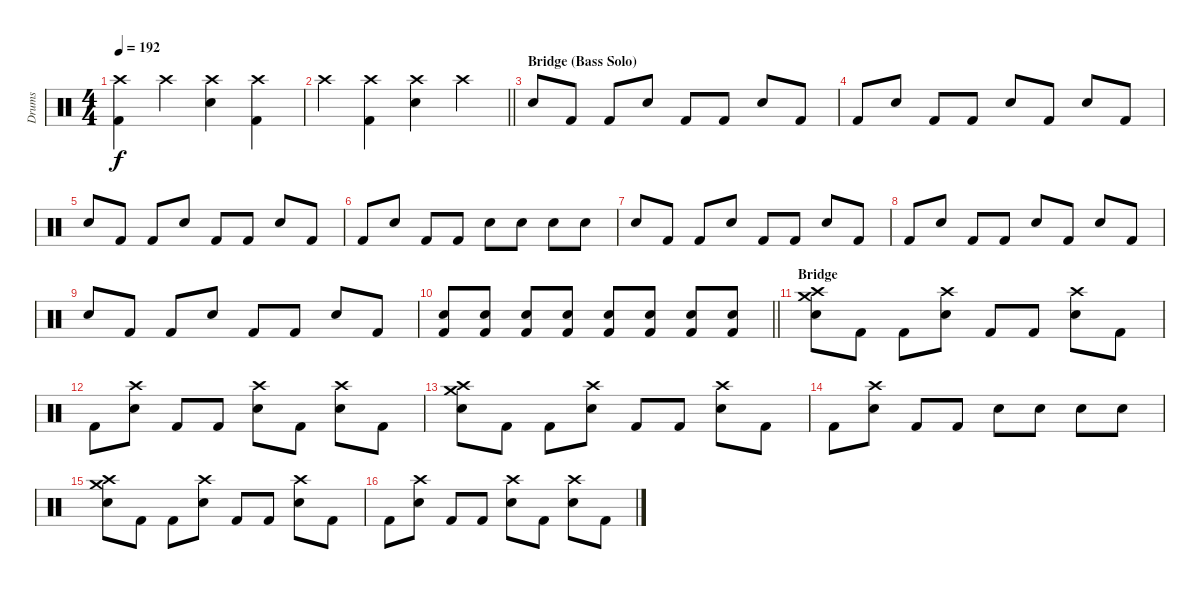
\track ("Drums" "Drums") {instrument percussion}
\staff {score}
\articulation defaults
\ts (4 4)
\tempo 192
\clef neutral
\ks c
("Crash high (hit)" "Kick (hit) 2").4{dy f} "Crash high (hit)".4 ("Crash high (hit)" "Snare (hit) 2").4 ("Crash high (hit)" "Kick (hit) 2").4 |
\barLineRight lightlight "Crash high (hit)".4
("Crash high (hit)" "Kick (hit) 2").4 ("Crash high (hit)" "Snare (hit) 2").4 "Crash high (hit)".4 |
\section ("" "Bridge (Bass Solo)")
"Snare (hit) 2".8 "Kick (hit) 2".8 "Kick (hit) 2".8 "Snare (hit) 2".8 "Kick (hit) 2".8 "Kick (hit) 2".8 "Snare (hit) 2".8 "Kick (hit) 2".8 |
"Kick (hit) 2".8 "Snare (hit) 2".8 "Kick (hit) 2".8 "Kick (hit) 2".8 "Snare (hit) 2".8 "Kick (hit) 2".8 "Snare (hit) 2".8 "Kick (hit) 2".8 |
"Snare (hit) 2".8 "Kick (hit) 2".8 "Kick (hit) 2".8 "Snare (hit) 2".8 "Kick (hit) 2".8 "Kick (hit) 2".8 "Snare (hit) 2".8 "Kick (hit) 2".8 |
"Kick (hit) 2".8 "Snare (hit) 2".8 "Kick (hit) 2".8 "Kick (hit) 2".8 "Snare (hit) 2".8 "Snare (hit) 2".8 "Snare (hit) 2".8 "Snare (hit) 2".8 |
"Snare (hit) 2".8 "Kick (hit) 2".8 "Kick (hit) 2".8 "Snare (hit) 2".8 "Kick (hit) 2".8 "Kick (hit) 2".8 "Snare (hit) 2".8 "Kick (hit) 2".8 |
"Kick (hit) 2".8 "Snare (hit) 2".8 "Kick (hit) 2".8 "Kick (hit) 2".8 "Snare (hit) 2".8 "Kick (hit) 2".8 "Snare (hit) 2".8 "Kick (hit) 2".8 |
"Snare (hit) 2".8 "Kick (hit) 2".8 "Kick (hit) 2".8 "Snare (hit) 2".8 "Kick (hit) 2".8 "Kick (hit) 2".8 "Snare (hit) 2".8 "Kick (hit) 2".8 |
\barLineRight lightlight
("Snare (hit) 2" "Kick (hit) 2").8 ("Snare (hit) 2" "Kick (hit) 2").8 ("Snare (hit) 2" "Kick (hit) 2").8 ("Snare (hit) 2" "Kick (hit) 2").8 ("Snare (hit) 2" "Kick (hit) 2").8 ("Snare (hit) 2" "Kick (hit) 2").8 ("Snare (hit) 2" "Kick (hit) 2").8 ("Snare (hit) 2" "Kick (hit) 2").8 |
\section ("" "Bridge")
("Crash high (hit)" "Crash medium (hit)" "Snare (hit) 2").8 "Kick (hit) 2".8 "Kick (hit) 2".8 ("Crash high (hit)" "Snare (hit) 2").8 "Kick (hit) 2".8 "Kick (hit) 2".8 ("Crash high (hit)" "Snare (hit) 2").8 "Kick (hit) 2".8 |
"Kick (hit) 2".8 ("Crash high (hit)" "Snare (hit) 2").8 "Kick (hit) 2".8 "Kick (hit) 2".8 ("Crash high (hit)" "Snare (hit) 2").8 "Kick (hit) 2".8 ("Crash high (hit)" "Snare (hit) 2").8 "Kick (hit) 2".8 |
("Crash high (hit)" "Crash medium (hit)" "Snare (hit) 2").8 "Kick (hit) 2".8 "Kick (hit) 2".8 ("Crash high (hit)" "Snare (hit) 2").8 "Kick (hit) 2".8 "Kick (hit) 2".8 ("Crash high (hit)" "Snare (hit) 2").8 "Kick (hit) 2".8 |
"Kick (hit) 2".8 ("Crash high (hit)" "Snare (hit) 2").8 "Kick (hit) 2".8 "Kick (hit) 2".8 "Snare (hit) 2".8 "Snare (hit) 2".8 "Snare (hit) 2".8 "Snare (hit) 2".8 |
("Crash high (hit)" "Crash medium (hit)" "Snare (hit) 2").8 "Kick (hit) 2".8 "Kick (hit) 2".8 ("Crash high (hit)" "Snare (hit) 2").8 "Kick (hit) 2".8 "Kick (hit) 2".8 ("Crash high (hit)" "Snare (hit) 2").8 "Kick (hit) 2".8 |
"Kick (hit) 2".8 ("Crash high (hit)" "Snare (hit) 2").8 "Kick (hit) 2".8 "Kick (hit) 2".8 ("Crash high (hit)" "Snare (hit) 2").8 "Kick (hit) 2".8 ("Crash high (hit)" "Snare (hit) 2").8 "Kick (hit) 2".8
